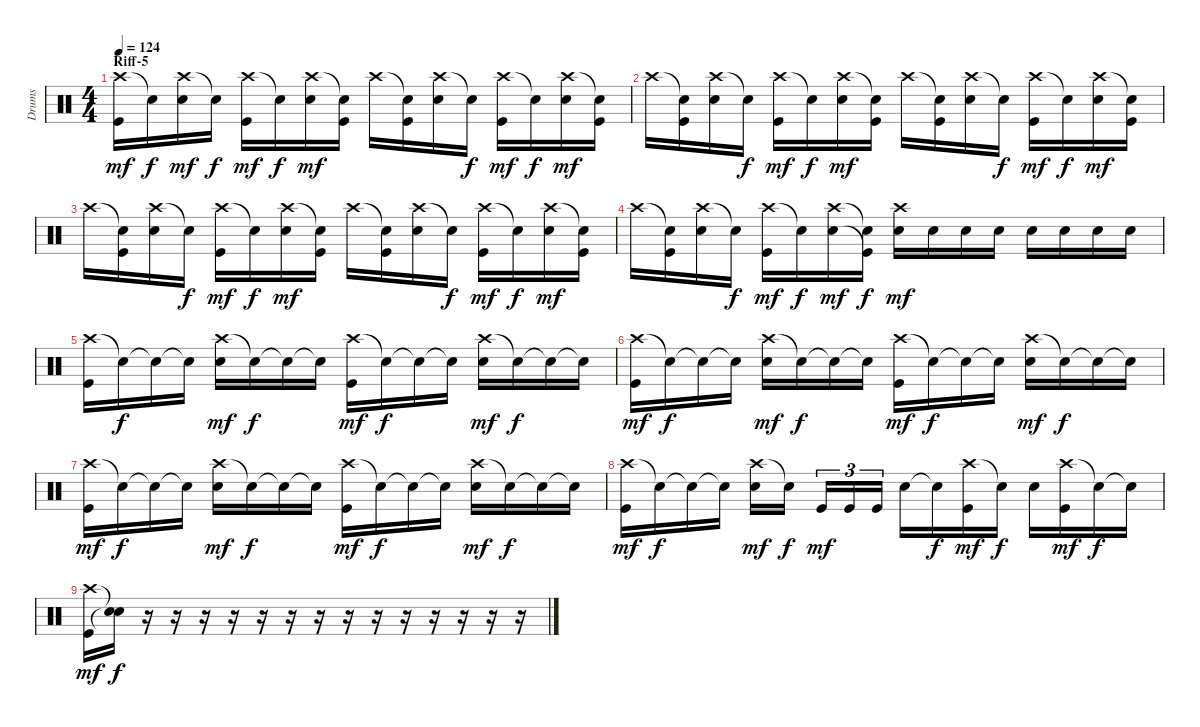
\track ("Drums" "Drums") {instrument percussion}
\staff {score}
\articulation defaults
\ts (4 4)
\section ("" "Riff-5")
\tempo 124
\clef neutral
\ks c
("Crash high (hit)" "Kick (hit)").16{dy mf} "Snare (hit)"{t}.16{dy f} ("Crash high (hit)" "Electric Snare (hit)").16{dy mf} "Snare (hit)"{t}.16{dy f} ("Crash high (hit)" "Kick (hit)").16{dy mf} "Snare (hit)"{t}.16{dy f} ("Crash high (hit)" "Electric Snare (hit)").16{dy mf} ("Snare (hit)"{t} "Kick (hit)").16 "Crash high (hit)".16 ("Snare (hit)"{t} "Kick (hit)").16 ("Crash high (hit)" "Electric Snare (hit)").16 "Snare (hit)"{t}.16{dy f} ("Crash high (hit)" "Kick (hit)").16{dy mf} "Snare (hit)"{t}.16{dy f} ("Crash high (hit)" "Electric Snare (hit)").16{dy mf} ("Snare (hit)"{t} "Kick (hit)").16 |
"Crash high (hit)".16 ("Snare (hit)"{t} "Kick (hit)").16 ("Crash high (hit)" "Electric Snare (hit)").16 "Snare (hit)"{t}.16{dy f} ("Crash high (hit)" "Kick (hit)").16{dy mf} "Snare (hit)"{t}.16{dy f} ("Crash high (hit)" "Electric Snare (hit)").16{dy mf} ("Snare (hit)"{t} "Kick (hit)").16 "Crash high (hit)".16 ("Snare (hit)"{t} "Kick (hit)").16 ("Crash high (hit)" "Electric Snare (hit)").16 "Snare (hit)"{t}.16{dy f} ("Crash high (hit)" "Kick (hit)").16{dy mf} "Snare (hit)"{t}.16{dy f} ("Crash high (hit)" "Electric Snare (hit)").16{dy mf} ("Snare (hit)"{t} "Kick (hit)").16 |
"Crash high (hit)".16 ("Snare (hit)"{t} "Kick (hit)").16 ("Crash high (hit)" "Electric Snare (hit)").16 "Snare (hit)"{t}.16{dy f} ("Crash high (hit)" "Kick (hit)").16{dy mf} "Snare (hit)"{t}.16{dy f} ("Crash high (hit)" "Electric Snare (hit)").16{dy mf} ("Snare (hit)"{t} "Kick (hit)").16 "Crash high (hit)".16 ("Snare (hit)"{t} "Kick (hit)").16 ("Crash high (hit)" "Electric Snare (hit)").16 "Snare (hit)"{t}.16{dy f} ("Crash high (hit)" "Kick (hit)").16{dy mf} "Snare (hit)"{t}.16{dy f} ("Crash high (hit)" "Electric Snare (hit)").16{dy mf} ("Snare (hit)"{t} "Kick (hit)").16 |
"Crash high (hit)".16 ("Snare (hit)"{t} "Kick (hit)").16 ("Crash high (hit)" "Electric Snare (hit)").16 "Snare (hit)"{t}.16{dy f} ("Crash high (hit)" "Kick (hit)").16{dy mf} "Snare (hit)"{t}.16{dy f} ("Crash high (hit)" "Electric Snare (hit)").16{dy mf} ("Snare (hit)"{t} "Kick (hit)"{t}).16{dy f} ("Crash high (hit)" "Electric Snare (hit)").16{dy mf} "Electric Snare (hit)".16 "Electric Snare (hit)".16 "Electric Snare (hit)".16 "Electric Snare (hit)".16 "Electric Snare (hit)".16 "Electric Snare (hit)".16 "Electric Snare (hit)".16 |
("Crash high (hit)" "Kick (hit)").16 "Snare (hit)"{t}.16{dy f} "Snare (hit)"{t}.16 "Snare (hit)"{t}.16 ("Crash high (hit)" "Electric Snare (hit)").16{dy mf} "Snare (hit)"{t}.16{dy f} "Snare (hit)"{t}.16 "Snare (hit)"{t}.16 ("Crash high (hit)" "Kick (hit)").16{dy mf} "Snare (hit)"{t}.16{dy f} "Snare (hit)"{t}.16 "Snare (hit)"{t}.16 ("Crash high (hit)" "Electric Snare (hit)").16{dy mf} "Snare (hit)"{t}.16{dy f} "Snare (hit)"{t}.16 "Snare (hit)"{t}.16 |
("Crash high (hit)" "Kick (hit)").16{dy mf} "Snare (hit)"{t}.16{dy f} "Snare (hit)"{t}.16 "Snare (hit)"{t}.16 ("Crash high (hit)" "Electric Snare (hit)").16{dy mf} "Snare (hit)"{t}.16{dy f} "Snare (hit)"{t}.16 "Snare (hit)"{t}.16 ("Crash high (hit)" "Kick (hit)").16{dy mf} "Snare (hit)"{t}.16{dy f} "Snare (hit)"{t}.16 "Snare (hit)"{t}.16 ("Crash high (hit)" "Electric Snare (hit)").16{dy mf} "Snare (hit)"{t}.16{dy f} "Snare (hit)"{t}.16 "Snare (hit)"{t}.16 |
("Crash high (hit)" "Kick (hit)").16{dy mf} "Snare (hit)"{t}.16{dy f} "Snare (hit)"{t}.16 "Snare (hit)"{t}.16 ("Crash high (hit)" "Electric Snare (hit)").16{dy mf} "Snare (hit)"{t}.16{dy f} "Snare (hit)"{t}.16 "Snare (hit)"{t}.16 ("Crash high (hit)" "Kick (hit)").16{dy mf} "Snare (hit)"{t}.16{dy f} "Snare (hit)"{t}.16 "Snare (hit)"{t}.16 ("Crash high (hit)" "Electric Snare (hit)").16{dy mf} "Snare (hit)"{t}.16{dy f} "Snare (hit)"{t}.16 "Snare (hit)"{t}.16 |
("Crash high (hit)" "Kick (hit)").16{dy mf} "Snare (hit)"{t}.16{dy f} "Snare (hit)"{t}.16 "Snare (hit)"{t}.16 ("Crash high (hit)" "Electric Snare (hit)").16{dy mf} "Snare (hit)"{t}.16{dy f} "Kick (hit)".16{tu (3 2) dy mf} "Kick (hit)".16{tu (3 2)} "Kick (hit)".16{tu (3 2)} "Electric Snare (hit)".16 "Snare (hit)"{t}.16{dy f} ("Crash high (hit)" "Kick (hit)").16{dy mf} "Snare (hit)"{t}.16{dy f} "Electric Snare (hit)".16 ("Crash high (hit)" "Kick (hit)").16{dy mf} "Snare (hit)"{t}.16{dy f} "Snare (hit)"{t}.16 |
("Crash high (hit)" "Kick (hit)").16{dy mf} ("Snare (hit)"{t} "Snare (hit)"{t}).16{dy f} r.16 r.16 r.16 r.16 r.16 r.16 r.16 r.16 r.16 r.16 r.16 r.16 r.16 r.16
